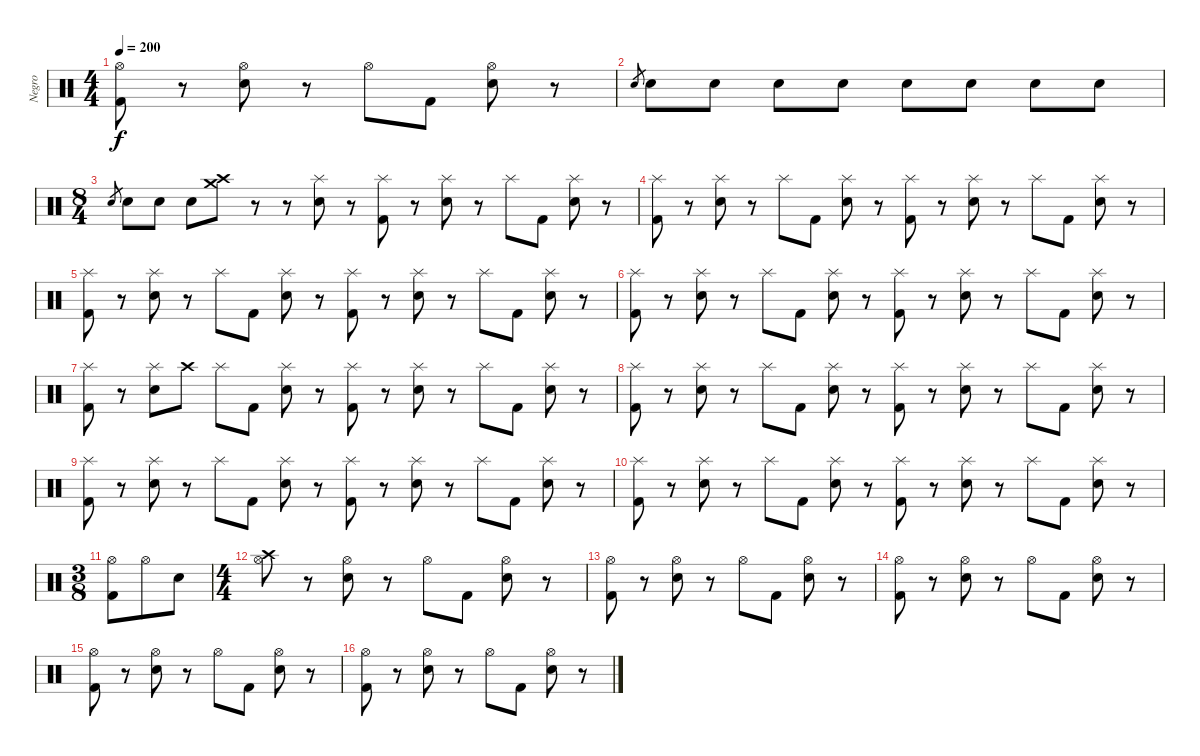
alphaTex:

\track ("Negro" "Negro") {instrument percussion}
\staff {score}
\articulation defaults
\ts (4 4)
\tempo 200
\clef neutral
\ks c
("Hi-Hat (open)" "Kick (hit) 2").8{dy f} r.8 ("Hi-Hat (open)" "Electric Snare (hit)").8 r.8 "Hi-Hat (open)".8 "Kick (hit) 2".8 ("Hi-Hat (open)" "Electric Snare (hit)").8 r.8 |
"Electric Snare (hit)".8{gr} "Electric Snare (hit)".8 "Electric Snare (hit)".8 "Electric Snare (hit)".8 "Electric Snare (hit)".8 "Electric Snare (hit)".8 "Electric Snare (hit)".8 "Electric Snare (hit)".8 "Electric Snare (hit)".8 |
\ts (8 4)
"Electric Snare (hit)".8{gr} "Electric Snare (hit)".8 "Electric Snare (hit)".8 "Electric Snare (hit)".8 ("Crash medium (hit)" "Crash high (hit)").8 r.8 r.8 ("Splash (hit)" "Electric Snare (hit)").8 r.8 ("Splash (hit)" "Kick (hit) 2").8 r.8 ("Splash (hit)" "Electric Snare (hit)").8 r.8 "Splash (hit)".8 "Kick (hit) 2".8 ("Splash (hit)" "Electric Snare (hit)").8 r.8 |
("Splash (hit)" "Kick (hit) 2").8 r.8 ("Splash (hit)" "Electric Snare (hit)").8 r.8 "Splash (hit)".8 "Kick (hit) 2".8 ("Splash (hit)" "Electric Snare (hit)").8 r.8 ("Splash (hit)" "Kick (hit) 2").8 r.8 ("Splash (hit)" "Electric Snare (hit)").8 r.8 "Splash (hit)".8 "Kick (hit) 2".8 ("Splash (hit)" "Electric Snare (hit)").8 r.8 |
("Splash (hit)" "Kick (hit) 2").8 r.8 ("Splash (hit)" "Electric Snare (hit)").8 r.8 "Splash (hit)".8 "Kick (hit) 2".8 ("Splash (hit)" "Electric Snare (hit)").8 r.8 ("Splash (hit)" "Kick (hit) 2").8 r.8 ("Splash (hit)" "Electric Snare (hit)").8 r.8 "Splash (hit)".8 "Kick (hit) 2".8 ("Splash (hit)" "Electric Snare (hit)").8 r.8 |
("Splash (hit)" "Kick (hit) 2").8 r.8 ("Splash (hit)" "Electric Snare (hit)").8 r.8 "Splash (hit)".8 "Kick (hit) 2".8 ("Splash (hit)" "Electric Snare (hit)").8 r.8 ("Splash (hit)" "Kick (hit) 2").8 r.8 ("Splash (hit)" "Electric Snare (hit)").8 r.8 "Splash (hit)".8 "Kick (hit) 2".8 ("Splash (hit)" "Electric Snare (hit)").8 r.8 |
("Splash (hit)" "Kick (hit) 2").8 r.8 ("Splash (hit)" "Electric Snare (hit)").8 "Crash high (hit)".8 "Splash (hit)".8 "Kick (hit) 2".8 ("Splash (hit)" "Electric Snare (hit)").8 r.8 ("Splash (hit)" "Kick (hit) 2").8 r.8 ("Splash (hit)" "Electric Snare (hit)").8 r.8 "Splash (hit)".8 "Kick (hit) 2".8 ("Splash (hit)" "Electric Snare (hit)").8 r.8 |
("Splash (hit)" "Kick (hit) 2").8 r.8 ("Splash (hit)" "Electric Snare (hit)").8 r.8 "Splash (hit)".8 "Kick (hit) 2".8 ("Splash (hit)" "Electric Snare (hit)").8 r.8 ("Splash (hit)" "Kick (hit) 2").8 r.8 ("Splash (hit)" "Electric Snare (hit)").8 r.8 "Splash (hit)".8 "Kick (hit) 2".8 ("Splash (hit)" "Electric Snare (hit)").8 r.8 |
("Splash (hit)" "Kick (hit) 2").8 r.8 ("Splash (hit)" "Electric Snare (hit)").8 r.8 "Splash (hit)".8 "Kick (hit) 2".8 ("Splash (hit)" "Electric Snare (hit)").8 r.8 ("Splash (hit)" "Kick (hit) 2").8 r.8 ("Splash (hit)" "Electric Snare (hit)").8 r.8 "Splash (hit)".8 "Kick (hit) 2".8 ("Splash (hit)" "Electric Snare (hit)").8 r.8 |
("Splash (hit)" "Kick (hit) 2").8 r.8 ("Splash (hit)" "Electric Snare (hit)").8 r.8 "Splash (hit)".8 "Kick (hit) 2".8 ("Splash (hit)" "Electric Snare (hit)").8 r.8 ("Splash (hit)" "Kick (hit) 2").8 r.8 ("Splash (hit)" "Electric Snare (hit)").8 r.8 "Splash (hit)".8 "Kick (hit) 2".8 ("Splash (hit)" "Electric Snare (hit)").8 r.8 |
\ts (3 8)
("Hi-Hat (open)" "Kick (hit) 2").8 "Hi-Hat (open)".8 "Electric Snare (hit)".8 |
\ts (4 4)
("Hi-Hat (open)" "Crash high (hit)").8 r.8 ("Hi-Hat (open)" "Electric Snare (hit)").8 r.8 "Hi-Hat (open)".8 "Kick (hit) 2".8 ("Hi-Hat (open)" "Electric Snare (hit)").8 r.8 |
("Hi-Hat (open)" "Kick (hit) 2").8 r.8 ("Hi-Hat (open)" "Electric Snare (hit)").8 r.8 "Hi-Hat (open)".8 "Kick (hit) 2".8 ("Hi-Hat (open)" "Electric Snare (hit)").8 r.8 |
("Hi-Hat (open)" "Kick (hit) 2").8 r.8 ("Hi-Hat (open)" "Electric Snare (hit)").8 r.8 "Hi-Hat (open)".8 "Kick (hit) 2".8 ("Hi-Hat (open)" "Electric Snare (hit)").8 r.8 |
("Hi-Hat (open)" "Kick (hit) 2").8 r.8 ("Hi-Hat (open)" "Electric Snare (hit)").8 r.8 "Hi-Hat (open)".8 "Kick (hit) 2".8 ("Hi-Hat (open)" "Electric Snare (hit)").8 r.8 |
("Hi-Hat (open)" "Kick (hit) 2").8 r.8 ("Hi-Hat (open)" "Electric Snare (hit)").8 r.8 "Hi-Hat (open)".8 "Kick (hit) 2".8 ("Hi-Hat (open)" "Electric Snare (hit)").8 r.8
